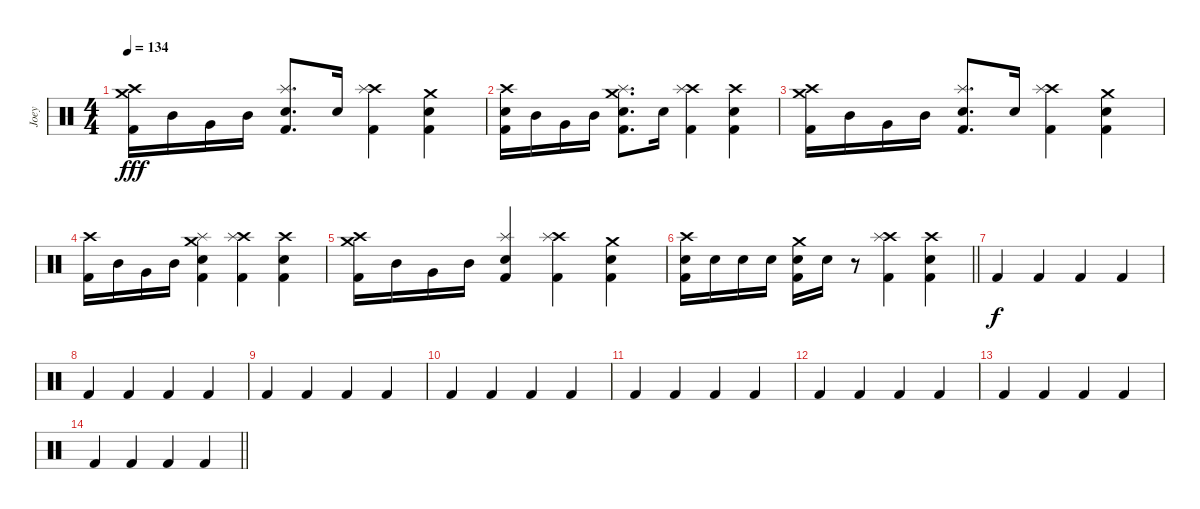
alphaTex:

\track ("Joey" "Joey") {instrument percussion}
\staff {score}
\articulation defaults
\ts (4 4)
\tempo 134
\clef neutral
\ks c
("Crash high (hit)" "Crash medium (hit)" "Kick (hit) 2").16{dy fff} "Mid Tom (hit)".16 "Very Low Tom (hit)".16 "Mid Tom (hit)".16 ("Splash (hit)" "Electric Snare (hit)" "Kick (hit) 2").8{d} "Electric Snare (hit)".16 ("Crash high (hit)" "Splash (hit)" "Kick (hit) 2").4 ("Crash medium (hit)" "Electric Snare (hit)" "Kick (hit) 2").4 |
("Crash high (hit)" "Electric Snare (hit)" "Kick (hit) 2").16 "Mid Tom (hit)".16 "Very Low Tom (hit)".16 "Mid Tom (hit)".16 ("Crash medium (hit)" "Splash (hit)" "Electric Snare (hit)" "Kick (hit) 2").8{d} "Electric Snare (hit)".16 ("Crash high (hit)" "Splash (hit)" "Kick (hit) 2").4 ("Crash high (hit)" "Electric Snare (hit)" "Kick (hit) 2").4 |
("Crash high (hit)" "Crash medium (hit)" "Kick (hit) 2").16 "Mid Tom (hit)".16 "Very Low Tom (hit)".16 "Mid Tom (hit)".16 ("Splash (hit)" "Electric Snare (hit)" "Kick (hit) 2").8{d} "Electric Snare (hit)".16 ("Crash high (hit)" "Splash (hit)" "Kick (hit) 2").4 ("Crash medium (hit)" "Electric Snare (hit)" "Kick (hit) 2").4 |
("Crash high (hit)" "Kick (hit) 2").16 "Mid Tom (hit)".16 "Very Low Tom (hit)".16 "Mid Tom (hit)".16 ("Crash medium (hit)" "Splash (hit)" "Electric Snare (hit)" "Kick (hit) 2").4 ("Crash high (hit)" "Splash (hit)" "Kick (hit) 2").4 ("Crash high (hit)" "Electric Snare (hit)" "Kick (hit) 2").4 |
("Crash high (hit)" "Crash medium (hit)" "Kick (hit) 2").16 "Mid Tom (hit)".16 "Very Low Tom (hit)".16 "Mid Tom (hit)".16 ("Splash (hit)" "Electric Snare (hit)" "Kick (hit) 2").4 ("Crash high (hit)" "Splash (hit)" "Kick (hit) 2").4 ("Crash medium (hit)" "Electric Snare (hit)" "Kick (hit) 2").4 |
\barLineRight lightlight
("Crash high (hit)" "Electric Snare (hit)" "Kick (hit) 2").16 "Electric Snare (hit)".16 "Electric Snare (hit)".16 "Electric Snare (hit)".16 ("Crash medium (hit)" "Electric Snare (hit)" "Kick (hit) 2").16 "Electric Snare (hit)".16 r.8 ("Crash high (hit)" "Splash (hit)" "Kick (hit) 2").4 ("Crash high (hit)" "Electric Snare (hit)" "Kick (hit) 2").4 |
\section ("" "")
"Kick (hit) 2".4{dy f} "Kick (hit) 2".4 "Kick (hit) 2".4 "Kick (hit) 2".4 |
"Kick (hit) 2".4 "Kick (hit) 2".4 "Kick (hit) 2".4 "Kick (hit) 2".4 |
"Kick (hit) 2".4 "Kick (hit) 2".4 "Kick (hit) 2".4 "Kick (hit) 2".4 |
"Kick (hit) 2".4 "Kick (hit) 2".4 "Kick (hit) 2".4 "Kick (hit) 2".4 |
"Kick (hit) 2".4 "Kick (hit) 2".4 "Kick (hit) 2".4 "Kick (hit) 2".4 |
"Kick (hit) 2".4 "Kick (hit) 2".4 "Kick (hit) 2".4 "Kick (hit) 2".4 |
"Kick (hit) 2".4 "Kick (hit) 2".4 "Kick (hit) 2".4 "Kick (hit) 2".4 |
\barLineRight lightlight "Kick (hit) 2".4 "Kick (hit) 2".4 "Kick (hit) 2".4 "Kick (hit) 2".4
